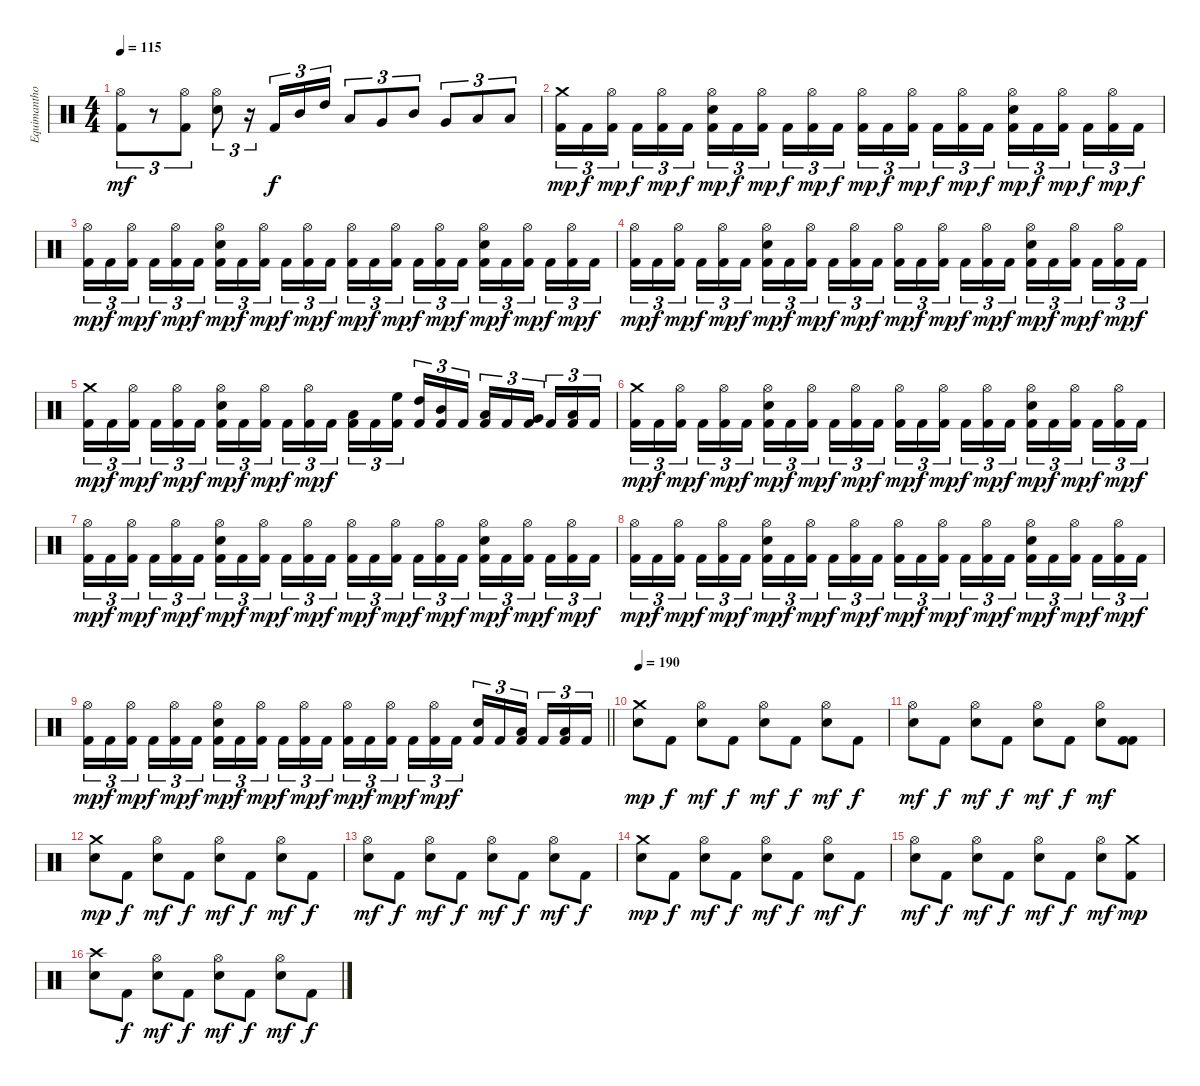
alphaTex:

\track ("Equimanthorn" "Equimantho") {instrument percussion}
\staff {score}
\articulation defaults
\ts (4 4)
\tempo 115
\clef neutral
\ks c
("Hi-Hat (open)" "Kick (hit) 2").8{tu (3 2) dy mf} r.8{tu (3 2)} ("Hi-Hat (open)" "Kick (hit) 2").8{tu (3 2)} ("Hi-Hat (open)" "Electric Snare (hit)").8{tu (3 2)} r.16{tu (3 2)} "Kick (hit) 2".16{tu (3 2) dy f} "Mid Tom (hit)".16{tu (3 2)} "High Tom (hit)".16{tu (3 2)} "Low Tom (hit)".8{tu (3 2)} "Very Low Tom (hit)".8{tu (3 2)} "Mid Tom (hit)".8{tu (3 2)} "Very Low Tom (hit)".8{tu (3 2)} "Low Tom (hit)".8{tu (3 2)} "Low Floor Tom (hit)".8{tu (3 2)} |
("Crash medium (hit)" "Kick (hit) 2").16{tu (3 2) dy mp} "Kick (hit) 2".16{tu (3 2) dy f} ("Hi-Hat (open)" "Kick (hit) 2").16{tu (3 2) dy mp beam splitsecondary} "Kick (hit) 2".16{tu (3 2) dy f} ("Hi-Hat (open)" "Kick (hit) 2").16{tu (3 2) dy mp} "Kick (hit) 2".16{tu (3 2) dy f} ("Hi-Hat (open)" "Electric Snare (hit)" "Kick (hit) 2").16{tu (3 2) dy mp} "Kick (hit) 2".16{tu (3 2) dy f} ("Hi-Hat (open)" "Kick (hit) 2").16{tu (3 2) dy mp beam splitsecondary} "Kick (hit) 2".16{tu (3 2) dy f} ("Hi-Hat (open)" "Kick (hit) 2").16{tu (3 2) dy mp} "Kick (hit) 2".16{tu (3 2) dy f} ("Hi-Hat (open)" "Kick (hit) 2").16{tu (3 2) dy mp} "Kick (hit) 2".16{tu (3 2) dy f} ("Hi-Hat (open)" "Kick (hit) 2").16{tu (3 2) dy mp beam splitsecondary} "Kick (hit) 2".16{tu (3 2) dy f} ("Hi-Hat (open)" "Kick (hit) 2").16{tu (3 2) dy mp} "Kick (hit) 2".16{tu (3 2) dy f} ("Hi-Hat (open)" "Electric Snare (hit)" "Kick (hit) 2").16{tu (3 2) dy mp} "Kick (hit) 2".16{tu (3 2) dy f} ("Hi-Hat (open)" "Kick (hit) 2").16{tu (3 2) dy mp beam splitsecondary} "Kick (hit) 2".16{tu (3 2) dy f} ("Hi-Hat (open)" "Kick (hit) 2").16{tu (3 2) dy mp} "Kick (hit) 2".16{tu (3 2) dy f} |
("Hi-Hat (open)" "Kick (hit) 2").16{tu (3 2) dy mp} "Kick (hit) 2".16{tu (3 2) dy f} ("Hi-Hat (open)" "Kick (hit) 2").16{tu (3 2) dy mp beam splitsecondary} "Kick (hit) 2".16{tu (3 2) dy f} ("Hi-Hat (open)" "Kick (hit) 2").16{tu (3 2) dy mp} "Kick (hit) 2".16{tu (3 2) dy f} ("Hi-Hat (open)" "Electric Snare (hit)" "Kick (hit) 2").16{tu (3 2) dy mp} "Kick (hit) 2".16{tu (3 2) dy f} ("Hi-Hat (open)" "Kick (hit) 2").16{tu (3 2) dy mp beam splitsecondary} "Kick (hit) 2".16{tu (3 2) dy f} ("Hi-Hat (open)" "Kick (hit) 2").16{tu (3 2) dy mp} "Kick (hit) 2".16{tu (3 2) dy f} ("Hi-Hat (open)" "Kick (hit) 2").16{tu (3 2) dy mp} "Kick (hit) 2".16{tu (3 2) dy f} ("Hi-Hat (open)" "Kick (hit) 2").16{tu (3 2) dy mp beam splitsecondary} "Kick (hit) 2".16{tu (3 2) dy f} ("Hi-Hat (open)" "Kick (hit) 2").16{tu (3 2) dy mp} "Kick (hit) 2".16{tu (3 2) dy f} ("Hi-Hat (open)" "Electric Snare (hit)" "Kick (hit) 2").16{tu (3 2) dy mp} "Kick (hit) 2".16{tu (3 2) dy f} ("Hi-Hat (open)" "Kick (hit) 2").16{tu (3 2) dy mp beam splitsecondary} "Kick (hit) 2".16{tu (3 2) dy f} ("Hi-Hat (open)" "Kick (hit) 2").16{tu (3 2) dy mp} "Kick (hit) 2".16{tu (3 2) dy f} |
("Hi-Hat (open)" "Kick (hit) 2").16{tu (3 2) dy mp} "Kick (hit) 2".16{tu (3 2) dy f} ("Hi-Hat (open)" "Kick (hit) 2").16{tu (3 2) dy mp beam splitsecondary} "Kick (hit) 2".16{tu (3 2) dy f} ("Hi-Hat (open)" "Kick (hit) 2").16{tu (3 2) dy mp} "Kick (hit) 2".16{tu (3 2) dy f} ("Hi-Hat (open)" "Electric Snare (hit)" "Kick (hit) 2").16{tu (3 2) dy mp} "Kick (hit) 2".16{tu (3 2) dy f} ("Hi-Hat (open)" "Kick (hit) 2").16{tu (3 2) dy mp beam splitsecondary} "Kick (hit) 2".16{tu (3 2) dy f} ("Hi-Hat (open)" "Kick (hit) 2").16{tu (3 2) dy mp} "Kick (hit) 2".16{tu (3 2) dy f} ("Hi-Hat (open)" "Kick (hit) 2").16{tu (3 2) dy mp} "Kick (hit) 2".16{tu (3 2) dy f} ("Hi-Hat (open)" "Kick (hit) 2").16{tu (3 2) dy mp beam splitsecondary} "Kick (hit) 2".16{tu (3 2) dy f} ("Hi-Hat (open)" "Kick (hit) 2").16{tu (3 2) dy mp} "Kick (hit) 2".16{tu (3 2) dy f} ("Hi-Hat (open)" "Electric Snare (hit)" "Kick (hit) 2").16{tu (3 2) dy mp} "Kick (hit) 2".16{tu (3 2) dy f} ("Hi-Hat (open)" "Kick (hit) 2").16{tu (3 2) dy mp beam splitsecondary} "Kick (hit) 2".16{tu (3 2) dy f} ("Hi-Hat (open)" "Kick (hit) 2").16{tu (3 2) dy mp} "Kick (hit) 2".16{tu (3 2) dy f} |
("Crash medium (hit)" "Kick (hit) 2").16{tu (3 2) dy mp} "Kick (hit) 2".16{tu (3 2) dy f} ("Hi-Hat (open)" "Kick (hit) 2").16{tu (3 2) dy mp beam splitsecondary} "Kick (hit) 2".16{tu (3 2) dy f} ("Hi-Hat (open)" "Kick (hit) 2").16{tu (3 2) dy mp} "Kick (hit) 2".16{tu (3 2) dy f} ("Hi-Hat (open)" "Electric Snare (hit)" "Kick (hit) 2").16{tu (3 2) dy mp} "Kick (hit) 2".16{tu (3 2) dy f} ("Hi-Hat (open)" "Kick (hit) 2").16{tu (3 2) dy mp beam splitsecondary} "Kick (hit) 2".16{tu (3 2) dy f} ("Hi-Hat (open)" "Kick (hit) 2").16{tu (3 2) dy mp} "Kick (hit) 2".16{tu (3 2) dy f} ("Low Tom (hit)" "Kick (hit) 2").16{tu (3 2)} "Kick (hit) 2".16{tu (3 2)} ("High Floor Tom (hit)" "Kick (hit) 2").16{tu (3 2) beam splitsecondary} ("High Tom (hit)" "Kick (hit) 2").16{tu (3 2)} ("Mid Tom (hit)" "Kick (hit) 2").16{tu (3 2)} "Kick (hit) 2".16{tu (3 2)} ("Low Tom (hit)" "Kick (hit) 2").16{tu (3 2)} "Kick (hit) 2".16{tu (3 2)} ("Very Low Tom (hit)" "Kick (hit) 2").16{tu (3 2) beam splitsecondary} "Kick (hit) 2".16{tu (3 2)} ("Low Floor Tom (hit)" "Kick (hit) 2").16{tu (3 2)} "Kick (hit) 2".16{tu (3 2)} |
("Crash medium (hit)" "Kick (hit) 2").16{tu (3 2) dy mp} "Kick (hit) 2".16{tu (3 2) dy f} ("Hi-Hat (open)" "Kick (hit) 2").16{tu (3 2) dy mp beam splitsecondary} "Kick (hit) 2".16{tu (3 2) dy f} ("Hi-Hat (open)" "Kick (hit) 2").16{tu (3 2) dy mp} "Kick (hit) 2".16{tu (3 2) dy f} ("Hi-Hat (open)" "Electric Snare (hit)" "Kick (hit) 2").16{tu (3 2) dy mp} "Kick (hit) 2".16{tu (3 2) dy f} ("Hi-Hat (open)" "Kick (hit) 2").16{tu (3 2) dy mp beam splitsecondary} "Kick (hit) 2".16{tu (3 2) dy f} ("Hi-Hat (open)" "Kick (hit) 2").16{tu (3 2) dy mp} "Kick (hit) 2".16{tu (3 2) dy f} ("Hi-Hat (open)" "Kick (hit) 2").16{tu (3 2) dy mp} "Kick (hit) 2".16{tu (3 2) dy f} ("Hi-Hat (open)" "Kick (hit) 2").16{tu (3 2) dy mp beam splitsecondary} "Kick (hit) 2".16{tu (3 2) dy f} ("Hi-Hat (open)" "Kick (hit) 2").16{tu (3 2) dy mp} "Kick (hit) 2".16{tu (3 2) dy f} ("Hi-Hat (open)" "Electric Snare (hit)" "Kick (hit) 2").16{tu (3 2) dy mp} "Kick (hit) 2".16{tu (3 2) dy f} ("Hi-Hat (open)" "Kick (hit) 2").16{tu (3 2) dy mp beam splitsecondary} "Kick (hit) 2".16{tu (3 2) dy f} ("Hi-Hat (open)" "Kick (hit) 2").16{tu (3 2) dy mp} "Kick (hit) 2".16{tu (3 2) dy f} |
("Hi-Hat (open)" "Kick (hit) 2").16{tu (3 2) dy mp} "Kick (hit) 2".16{tu (3 2) dy f} ("Hi-Hat (open)" "Kick (hit) 2").16{tu (3 2) dy mp beam splitsecondary} "Kick (hit) 2".16{tu (3 2) dy f} ("Hi-Hat (open)" "Kick (hit) 2").16{tu (3 2) dy mp} "Kick (hit) 2".16{tu (3 2) dy f} ("Hi-Hat (open)" "Electric Snare (hit)" "Kick (hit) 2").16{tu (3 2) dy mp} "Kick (hit) 2".16{tu (3 2) dy f} ("Hi-Hat (open)" "Kick (hit) 2").16{tu (3 2) dy mp beam splitsecondary} "Kick (hit) 2".16{tu (3 2) dy f} ("Hi-Hat (open)" "Kick (hit) 2").16{tu (3 2) dy mp} "Kick (hit) 2".16{tu (3 2) dy f} ("Hi-Hat (open)" "Kick (hit) 2").16{tu (3 2) dy mp} "Kick (hit) 2".16{tu (3 2) dy f} ("Hi-Hat (open)" "Kick (hit) 2").16{tu (3 2) dy mp beam splitsecondary} "Kick (hit) 2".16{tu (3 2) dy f} ("Hi-Hat (open)" "Kick (hit) 2").16{tu (3 2) dy mp} "Kick (hit) 2".16{tu (3 2) dy f} ("Hi-Hat (open)" "Electric Snare (hit)" "Kick (hit) 2").16{tu (3 2) dy mp} "Kick (hit) 2".16{tu (3 2) dy f} ("Hi-Hat (open)" "Kick (hit) 2").16{tu (3 2) dy mp beam splitsecondary} "Kick (hit) 2".16{tu (3 2) dy f} ("Hi-Hat (open)" "Kick (hit) 2").16{tu (3 2) dy mp} "Kick (hit) 2".16{tu (3 2) dy f} |
("Hi-Hat (open)" "Kick (hit) 2").16{tu (3 2) dy mp} "Kick (hit) 2".16{tu (3 2) dy f} ("Hi-Hat (open)" "Kick (hit) 2").16{tu (3 2) dy mp beam splitsecondary} "Kick (hit) 2".16{tu (3 2) dy f} ("Hi-Hat (open)" "Kick (hit) 2").16{tu (3 2) dy mp} "Kick (hit) 2".16{tu (3 2) dy f} ("Hi-Hat (open)" "Electric Snare (hit)" "Kick (hit) 2").16{tu (3 2) dy mp} "Kick (hit) 2".16{tu (3 2) dy f} ("Hi-Hat (open)" "Kick (hit) 2").16{tu (3 2) dy mp beam splitsecondary} "Kick (hit) 2".16{tu (3 2) dy f} ("Hi-Hat (open)" "Kick (hit) 2").16{tu (3 2) dy mp} "Kick (hit) 2".16{tu (3 2) dy f} ("Hi-Hat (open)" "Kick (hit) 2").16{tu (3 2) dy mp} "Kick (hit) 2".16{tu (3 2) dy f} ("Hi-Hat (open)" "Kick (hit) 2").16{tu (3 2) dy mp beam splitsecondary} "Kick (hit) 2".16{tu (3 2) dy f} ("Hi-Hat (open)" "Kick (hit) 2").16{tu (3 2) dy mp} "Kick (hit) 2".16{tu (3 2) dy f} ("Hi-Hat (open)" "Electric Snare (hit)" "Kick (hit) 2").16{tu (3 2) dy mp} "Kick (hit) 2".16{tu (3 2) dy f} ("Hi-Hat (open)" "Kick (hit) 2").16{tu (3 2) dy mp beam splitsecondary} "Kick (hit) 2".16{tu (3 2) dy f} ("Hi-Hat (open)" "Kick (hit) 2").16{tu (3 2) dy mp} "Kick (hit) 2".16{tu (3 2) dy f} |
\barLineRight lightlight
("Hi-Hat (open)" "Kick (hit) 2").16{tu (3 2) dy mp} "Kick (hit) 2".16{tu (3 2) dy f} ("Hi-Hat (open)" "Kick (hit) 2").16{tu (3 2) dy mp beam splitsecondary} "Kick (hit) 2".16{tu (3 2) dy f} ("Hi-Hat (open)" "Kick (hit) 2").16{tu (3 2) dy mp} "Kick (hit) 2".16{tu (3 2) dy f} ("Hi-Hat (open)" "Electric Snare (hit)" "Kick (hit) 2").16{tu (3 2) dy mp} "Kick (hit) 2".16{tu (3 2) dy f} ("Hi-Hat (open)" "Kick (hit) 2").16{tu (3 2) dy mp beam splitsecondary} "Kick (hit) 2".16{tu (3 2) dy f} ("Hi-Hat (open)" "Kick (hit) 2").16{tu (3 2) dy mp} "Kick (hit) 2".16{tu (3 2) dy f} ("Hi-Hat (open)" "Kick (hit) 2").16{tu (3 2) dy mp} "Kick (hit) 2".16{tu (3 2) dy f} ("Hi-Hat (open)" "Kick (hit) 2").16{tu (3 2) dy mp beam splitsecondary} "Kick (hit) 2".16{tu (3 2) dy f} ("Hi-Hat (open)" "Kick (hit) 2").16{tu (3 2) dy mp} "Kick (hit) 2".16{tu (3 2) dy f} ("Electric Snare (hit)" "Kick (hit) 2").16{tu (3 2)} "Kick (hit) 2".16{tu (3 2)} ("Low Tom (hit)" "Kick (hit) 2").16{tu (3 2) beam splitsecondary} "Kick (hit) 2".16{tu (3 2)} ("Low Floor Tom (hit)" "Kick (hit) 2").16{tu (3 2)} "Kick (hit) 2".16{tu (3 2)} |
\section ("" "")
\tempo 190
("Crash medium (hit)" "Electric Snare (hit)").8{dy mp} "Kick (hit) 2".8{dy f} ("Hi-Hat (open)" "Electric Snare (hit)").8{dy mf} "Kick (hit) 2".8{dy f} ("Hi-Hat (open)" "Electric Snare (hit)").8{dy mf} "Kick (hit) 2".8{dy f} ("Hi-Hat (open)" "Electric Snare (hit)").8{dy mf} "Kick (hit) 2".8{dy f} |
("Hi-Hat (open)" "Electric Snare (hit)").8{dy mf} "Kick (hit) 2".8{dy f} ("Hi-Hat (open)" "Electric Snare (hit)").8{dy mf} "Kick (hit) 2".8{dy f} ("Hi-Hat (open)" "Electric Snare (hit)").8{dy mf} "Kick (hit) 2".8{dy f} ("Hi-Hat (open)" "Electric Snare (hit)").8{dy mf} ("Kick (hit) 2" "Kick (hit) 2").8 |
("Crash medium (hit)" "Electric Snare (hit)").8{dy mp} "Kick (hit) 2".8{dy f} ("Hi-Hat (open)" "Electric Snare (hit)").8{dy mf} "Kick (hit) 2".8{dy f} ("Hi-Hat (open)" "Electric Snare (hit)").8{dy mf} "Kick (hit) 2".8{dy f} ("Hi-Hat (open)" "Electric Snare (hit)").8{dy mf} "Kick (hit) 2".8{dy f} |
("Hi-Hat (open)" "Electric Snare (hit)").8{dy mf} "Kick (hit) 2".8{dy f} ("Hi-Hat (open)" "Electric Snare (hit)").8{dy mf} "Kick (hit) 2".8{dy f} ("Hi-Hat (open)" "Electric Snare (hit)").8{dy mf} "Kick (hit) 2".8{dy f} ("Hi-Hat (open)" "Electric Snare (hit)").8{dy mf} "Kick (hit) 2".8{dy f} |
("Crash medium (hit)" "Electric Snare (hit)").8{dy mp} "Kick (hit) 2".8{dy f} ("Hi-Hat (open)" "Electric Snare (hit)").8{dy mf} "Kick (hit) 2".8{dy f} ("Hi-Hat (open)" "Electric Snare (hit)").8{dy mf} "Kick (hit) 2".8{dy f} ("Hi-Hat (open)" "Electric Snare (hit)").8{dy mf} "Kick (hit) 2".8{dy f} |
("Hi-Hat (open)" "Electric Snare (hit)").8{dy mf} "Kick (hit) 2".8{dy f} ("Hi-Hat (open)" "Electric Snare (hit)").8{dy mf} "Kick (hit) 2".8{dy f} ("Hi-Hat (open)" "Electric Snare (hit)").8{dy mf} "Kick (hit) 2".8{dy f} ("Hi-Hat (open)" "Electric Snare (hit)").8{dy mf} ("Crash medium (hit)" "Kick (hit) 2").8{dy mp} |
("Crash high (hit)" "Electric Snare (hit)").8 "Kick (hit) 2".8{dy f} ("Hi-Hat (open)" "Electric Snare (hit)").8{dy mf} "Kick (hit) 2".8{dy f} ("Hi-Hat (open)" "Electric Snare (hit)").8{dy mf} "Kick (hit) 2".8{dy f} ("Hi-Hat (open)" "Electric Snare (hit)").8{dy mf} "Kick (hit) 2".8{dy f}
